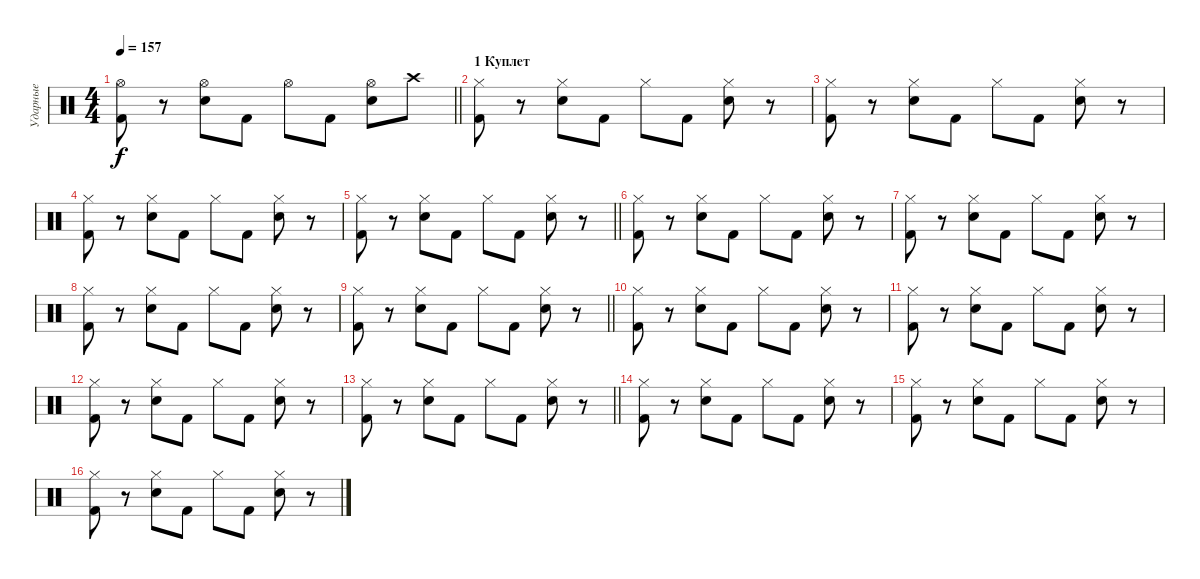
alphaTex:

\track ("Ударные" "Ударные") {instrument percussion}
\staff {score}
\articulation defaults
\ts (4 4)
\tempo 157
\clef neutral
\barLineRight lightlight
\ks c
("Hi-Hat (open)" "Kick (hit) 2").8{dy f} r.8 ("Hi-Hat (open)" "Snare (hit) 2").8 "Kick (hit) 2".8 "Hi-Hat (open)".8 "Kick (hit) 2".8 ("Hi-Hat (open)" "Snare (hit) 2").8 "Crash high (hit)".8 |
\section ("" "1 Куплет")
("Hi-Hat (closed)" "Kick (hit) 2").8 r.8 ("Hi-Hat (closed)" "Snare (hit) 2").8 "Kick (hit) 2".8 "Hi-Hat (closed)".8 "Kick (hit) 2".8 ("Hi-Hat (closed)" "Snare (hit) 2").8 r.8 |
("Hi-Hat (closed)" "Kick (hit) 2").8 r.8 ("Hi-Hat (closed)" "Snare (hit) 2").8 "Kick (hit) 2".8 "Hi-Hat (closed)".8 "Kick (hit) 2".8 ("Hi-Hat (closed)" "Snare (hit) 2").8 r.8 |
("Hi-Hat (closed)" "Kick (hit) 2").8 r.8 ("Hi-Hat (closed)" "Snare (hit) 2").8 "Kick (hit) 2".8 "Hi-Hat (closed)".8 "Kick (hit) 2".8 ("Hi-Hat (closed)" "Snare (hit) 2").8 r.8 |
\barLineRight lightlight
("Hi-Hat (closed)" "Kick (hit) 2").8 r.8 ("Hi-Hat (closed)" "Snare (hit) 2").8 "Kick (hit) 2".8 "Hi-Hat (closed)".8 "Kick (hit) 2".8 ("Hi-Hat (closed)" "Snare (hit) 2").8 r.8 |
("Hi-Hat (closed)" "Kick (hit) 2").8 r.8 ("Hi-Hat (closed)" "Snare (hit) 2").8 "Kick (hit) 2".8 "Hi-Hat (closed)".8 "Kick (hit) 2".8 ("Hi-Hat (closed)" "Snare (hit) 2").8 r.8 |
("Hi-Hat (closed)" "Kick (hit) 2").8 r.8 ("Hi-Hat (closed)" "Snare (hit) 2").8 "Kick (hit) 2".8 "Hi-Hat (closed)".8 "Kick (hit) 2".8 ("Hi-Hat (closed)" "Snare (hit) 2").8 r.8 |
("Hi-Hat (closed)" "Kick (hit) 2").8 r.8 ("Hi-Hat (closed)" "Snare (hit) 2").8 "Kick (hit) 2".8 "Hi-Hat (closed)".8 "Kick (hit) 2".8 ("Hi-Hat (closed)" "Snare (hit) 2").8 r.8 |
\barLineRight lightlight
("Hi-Hat (closed)" "Kick (hit) 2").8 r.8 ("Hi-Hat (closed)" "Snare (hit) 2").8 "Kick (hit) 2".8 "Hi-Hat (closed)".8 "Kick (hit) 2".8 ("Hi-Hat (closed)" "Snare (hit) 2").8 r.8 |
("Hi-Hat (closed)" "Kick (hit) 2").8 r.8 ("Hi-Hat (closed)" "Snare (hit) 2").8 "Kick (hit) 2".8 "Hi-Hat (closed)".8 "Kick (hit) 2".8 ("Hi-Hat (closed)" "Snare (hit) 2").8 r.8 |
("Hi-Hat (closed)" "Kick (hit) 2").8 r.8 ("Hi-Hat (closed)" "Snare (hit) 2").8 "Kick (hit) 2".8 "Hi-Hat (closed)".8 "Kick (hit) 2".8 ("Hi-Hat (closed)" "Snare (hit) 2").8 r.8 |
("Hi-Hat (closed)" "Kick (hit) 2").8 r.8 ("Hi-Hat (closed)" "Snare (hit) 2").8 "Kick (hit) 2".8 "Hi-Hat (closed)".8 "Kick (hit) 2".8 ("Hi-Hat (closed)" "Snare (hit) 2").8 r.8 |
\barLineRight lightlight
("Hi-Hat (closed)" "Kick (hit) 2").8 r.8 ("Hi-Hat (closed)" "Snare (hit) 2").8 "Kick (hit) 2".8 "Hi-Hat (closed)".8 "Kick (hit) 2".8 ("Hi-Hat (closed)" "Snare (hit) 2").8 r.8 |
("Hi-Hat (closed)" "Kick (hit) 2").8 r.8 ("Hi-Hat (closed)" "Snare (hit) 2").8 "Kick (hit) 2".8 "Hi-Hat (closed)".8 "Kick (hit) 2".8 ("Hi-Hat (closed)" "Snare (hit) 2").8 r.8 |
("Hi-Hat (closed)" "Kick (hit) 2").8 r.8 ("Hi-Hat (closed)" "Snare (hit) 2").8 "Kick (hit) 2".8 "Hi-Hat (closed)".8 "Kick (hit) 2".8 ("Hi-Hat (closed)" "Snare (hit) 2").8 r.8 |
("Hi-Hat (closed)" "Kick (hit) 2").8 r.8 ("Hi-Hat (closed)" "Snare (hit) 2").8 "Kick (hit) 2".8 "Hi-Hat (closed)".8 "Kick (hit) 2".8 ("Hi-Hat (closed)" "Snare (hit) 2").8 r.8
